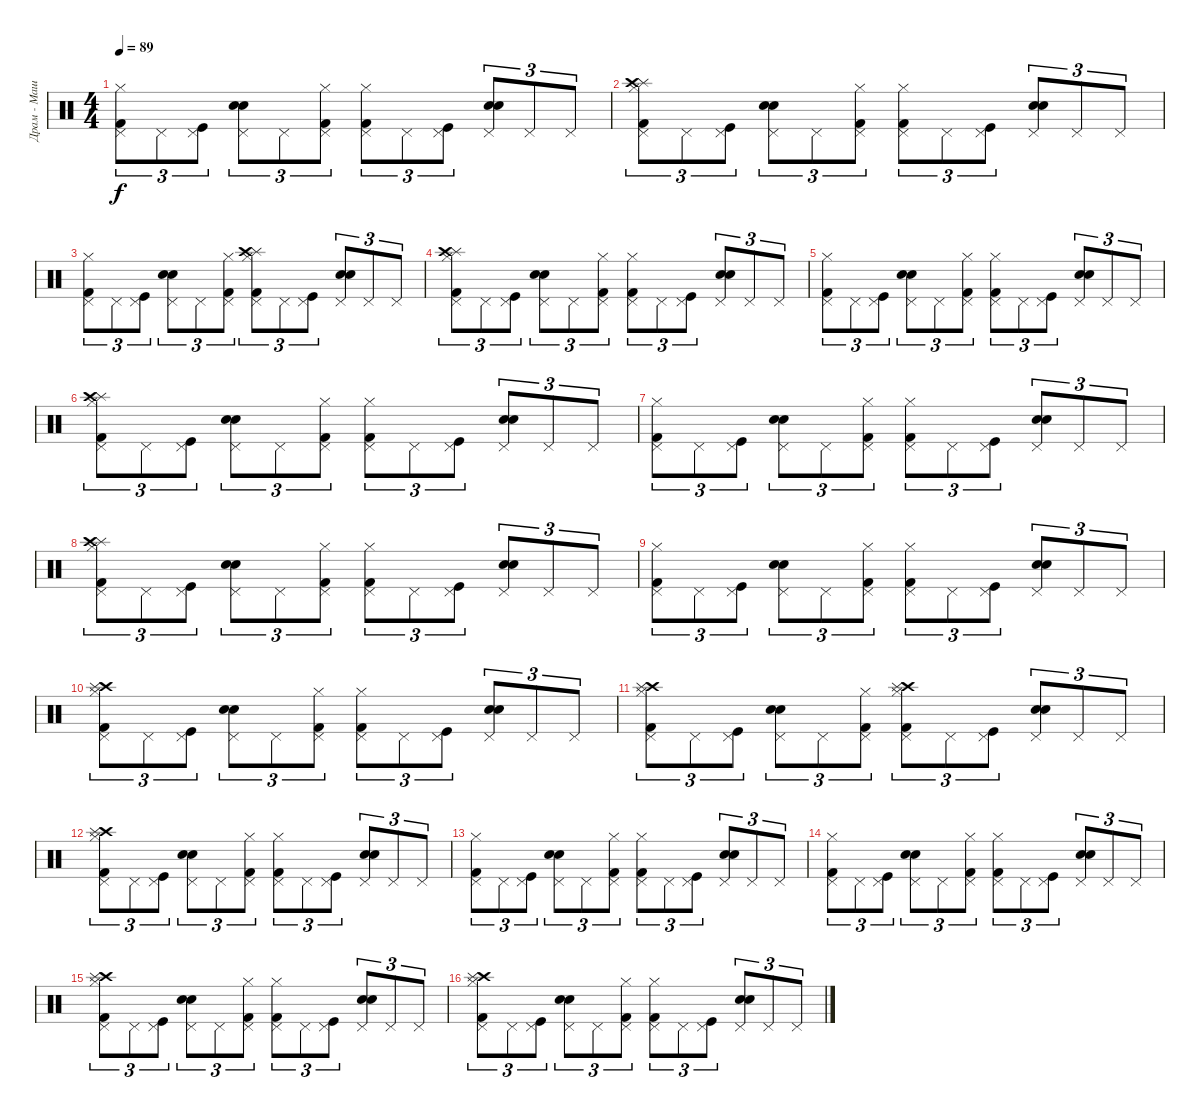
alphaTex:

\track ("Драм - Машина" "Драм - Маш") {instrument percussion}
\staff {score}
\articulation defaults
\ts (4 4)
\tempo 89
\clef neutral
\ks c
("Hi-Hat (closed)" "Kick (hit) 2" "Pedal Hi-Hat (hit)").8{tu (3 2) dy f} "Pedal Hi-Hat (hit)".8{tu (3 2)} ("Kick (hit)" "Pedal Hi-Hat (hit)").8{tu (3 2)} ("Snare (hit) 2" "Electric Snare (hit)" "Pedal Hi-Hat (hit)").8{tu (3 2)} "Pedal Hi-Hat (hit)".8{tu (3 2)} ("Kick (hit) 2" "Hi-Hat (closed)" "Pedal Hi-Hat (hit)").8{tu (3 2)} ("Hi-Hat (closed)" "Pedal Hi-Hat (hit)" "Kick (hit) 2").8{tu (3 2)} "Pedal Hi-Hat (hit)".8{tu (3 2)} ("Kick (hit)" "Pedal Hi-Hat (hit)").8{tu (3 2)} ("Pedal Hi-Hat (hit)" "Electric Snare (hit)" "Snare (hit) 2").8{tu (3 2)} "Pedal Hi-Hat (hit)".8{tu (3 2)} "Pedal Hi-Hat (hit)".8{tu (3 2)} |
("Splash (hit)" "Crash high (hit)" "Kick (hit) 2" "Hi-Hat (closed)" "Pedal Hi-Hat (hit)").8{tu (3 2)} "Pedal Hi-Hat (hit)".8{tu (3 2)} ("Kick (hit)" "Pedal Hi-Hat (hit)").8{tu (3 2)} ("Pedal Hi-Hat (hit)" "Snare (hit) 2" "Electric Snare (hit)").8{tu (3 2)} "Pedal Hi-Hat (hit)".8{tu (3 2)} ("Kick (hit) 2" "Hi-Hat (closed)" "Pedal Hi-Hat (hit)").8{tu (3 2)} ("Kick (hit) 2" "Hi-Hat (closed)" "Pedal Hi-Hat (hit)").8{tu (3 2)} "Pedal Hi-Hat (hit)".8{tu (3 2)} ("Kick (hit)" "Pedal Hi-Hat (hit)").8{tu (3 2)} ("Snare (hit) 2" "Pedal Hi-Hat (hit)" "Electric Snare (hit)").8{tu (3 2)} "Pedal Hi-Hat (hit)".8{tu (3 2)} "Pedal Hi-Hat (hit)".8{tu (3 2)} |
("Kick (hit) 2" "Hi-Hat (closed)" "Pedal Hi-Hat (hit)").8{tu (3 2)} "Pedal Hi-Hat (hit)".8{tu (3 2)} ("Kick (hit)" "Pedal Hi-Hat (hit)").8{tu (3 2)} ("Snare (hit) 2" "Pedal Hi-Hat (hit)" "Electric Snare (hit)").8{tu (3 2)} "Pedal Hi-Hat (hit)".8{tu (3 2)} ("Hi-Hat (closed)" "Pedal Hi-Hat (hit)" "Kick (hit) 2").8{tu (3 2)} ("Splash (hit)" "Hi-Hat (closed)" "Pedal Hi-Hat (hit)" "Kick (hit) 2" "Crash high (hit)").8{tu (3 2)} "Pedal Hi-Hat (hit)".8{tu (3 2)} ("Pedal Hi-Hat (hit)" "Kick (hit)").8{tu (3 2)} ("Snare (hit) 2" "Pedal Hi-Hat (hit)" "Electric Snare (hit)").8{tu (3 2)} "Pedal Hi-Hat (hit)".8{tu (3 2)} "Pedal Hi-Hat (hit)".8{tu (3 2)} |
("Splash (hit)" "Kick (hit) 2" "Hi-Hat (closed)" "Crash high (hit)" "Pedal Hi-Hat (hit)").8{tu (3 2)} "Pedal Hi-Hat (hit)".8{tu (3 2)} ("Kick (hit)" "Pedal Hi-Hat (hit)").8{tu (3 2)} ("Electric Snare (hit)" "Snare (hit) 2" "Pedal Hi-Hat (hit)").8{tu (3 2)} "Pedal Hi-Hat (hit)".8{tu (3 2)} ("Hi-Hat (closed)" "Kick (hit) 2" "Pedal Hi-Hat (hit)").8{tu (3 2)} ("Hi-Hat (closed)" "Kick (hit) 2" "Pedal Hi-Hat (hit)").8{tu (3 2)} "Pedal Hi-Hat (hit)".8{tu (3 2)} ("Pedal Hi-Hat (hit)" "Kick (hit)").8{tu (3 2)} ("Pedal Hi-Hat (hit)" "Snare (hit) 2" "Electric Snare (hit)").8{tu (3 2)} "Pedal Hi-Hat (hit)".8{tu (3 2)} "Pedal Hi-Hat (hit)".8{tu (3 2)} |
("Pedal Hi-Hat (hit)" "Kick (hit) 2" "Hi-Hat (closed)").8{tu (3 2)} "Pedal Hi-Hat (hit)".8{tu (3 2)} ("Kick (hit)" "Pedal Hi-Hat (hit)").8{tu (3 2)} ("Electric Snare (hit)" "Snare (hit) 2" "Pedal Hi-Hat (hit)").8{tu (3 2)} "Pedal Hi-Hat (hit)".8{tu (3 2)} ("Hi-Hat (closed)" "Kick (hit) 2" "Pedal Hi-Hat (hit)").8{tu (3 2)} ("Pedal Hi-Hat (hit)" "Kick (hit) 2" "Hi-Hat (closed)").8{tu (3 2)} "Pedal Hi-Hat (hit)".8{tu (3 2)} ("Kick (hit)" "Pedal Hi-Hat (hit)").8{tu (3 2)} ("Electric Snare (hit)" "Pedal Hi-Hat (hit)" "Snare (hit) 2").8{tu (3 2)} "Pedal Hi-Hat (hit)".8{tu (3 2)} "Pedal Hi-Hat (hit)".8{tu (3 2)} |
("Kick (hit) 2" "Splash (hit)" "Crash high (hit)" "Hi-Hat (closed)" "Pedal Hi-Hat (hit)").8{tu (3 2)} "Pedal Hi-Hat (hit)".8{tu (3 2)} ("Kick (hit)" "Pedal Hi-Hat (hit)").8{tu (3 2)} ("Snare (hit) 2" "Pedal Hi-Hat (hit)" "Electric Snare (hit)").8{tu (3 2)} "Pedal Hi-Hat (hit)".8{tu (3 2)} ("Kick (hit) 2" "Hi-Hat (closed)" "Pedal Hi-Hat (hit)").8{tu (3 2)} ("Kick (hit) 2" "Pedal Hi-Hat (hit)" "Hi-Hat (closed)").8{tu (3 2)} "Pedal Hi-Hat (hit)".8{tu (3 2)} ("Kick (hit)" "Pedal Hi-Hat (hit)").8{tu (3 2)} ("Snare (hit) 2" "Electric Snare (hit)" "Pedal Hi-Hat (hit)").8{tu (3 2)} "Pedal Hi-Hat (hit)".8{tu (3 2)} "Pedal Hi-Hat (hit)".8{tu (3 2)} |
("Pedal Hi-Hat (hit)" "Kick (hit) 2" "Hi-Hat (closed)").8{tu (3 2)} "Pedal Hi-Hat (hit)".8{tu (3 2)} ("Pedal Hi-Hat (hit)" "Kick (hit)").8{tu (3 2)} ("Electric Snare (hit)" "Snare (hit) 2" "Pedal Hi-Hat (hit)").8{tu (3 2)} "Pedal Hi-Hat (hit)".8{tu (3 2)} ("Kick (hit) 2" "Pedal Hi-Hat (hit)" "Hi-Hat (closed)").8{tu (3 2)} ("Hi-Hat (closed)" "Pedal Hi-Hat (hit)" "Kick (hit) 2").8{tu (3 2)} "Pedal Hi-Hat (hit)".8{tu (3 2)} ("Kick (hit)" "Pedal Hi-Hat (hit)").8{tu (3 2)} ("Pedal Hi-Hat (hit)" "Electric Snare (hit)" "Snare (hit) 2").8{tu (3 2)} "Pedal Hi-Hat (hit)".8{tu (3 2)} "Pedal Hi-Hat (hit)".8{tu (3 2)} |
("Splash (hit)" "Kick (hit) 2" "Hi-Hat (closed)" "Pedal Hi-Hat (hit)" "Crash high (hit)").8{tu (3 2)} "Pedal Hi-Hat (hit)".8{tu (3 2)} ("Kick (hit)" "Pedal Hi-Hat (hit)").8{tu (3 2)} ("Snare (hit) 2" "Pedal Hi-Hat (hit)" "Electric Snare (hit)").8{tu (3 2)} "Pedal Hi-Hat (hit)".8{tu (3 2)} ("Hi-Hat (closed)" "Pedal Hi-Hat (hit)" "Kick (hit) 2").8{tu (3 2)} ("Hi-Hat (closed)" "Pedal Hi-Hat (hit)" "Kick (hit) 2").8{tu (3 2)} "Pedal Hi-Hat (hit)".8{tu (3 2)} ("Pedal Hi-Hat (hit)" "Kick (hit)").8{tu (3 2)} ("Snare (hit) 2" "Electric Snare (hit)" "Pedal Hi-Hat (hit)").8{tu (3 2)} "Pedal Hi-Hat (hit)".8{tu (3 2)} "Pedal Hi-Hat (hit)".8{tu (3 2)} |
("Kick (hit) 2" "Hi-Hat (closed)" "Pedal Hi-Hat (hit)").8{tu (3 2)} "Pedal Hi-Hat (hit)".8{tu (3 2)} ("Pedal Hi-Hat (hit)" "Kick (hit)").8{tu (3 2)} ("Electric Snare (hit)" "Snare (hit) 2" "Pedal Hi-Hat (hit)").8{tu (3 2)} "Pedal Hi-Hat (hit)".8{tu (3 2)} ("Hi-Hat (closed)" "Kick (hit) 2" "Pedal Hi-Hat (hit)").8{tu (3 2)} ("Hi-Hat (closed)" "Kick (hit) 2" "Pedal Hi-Hat (hit)").8{tu (3 2)} "Pedal Hi-Hat (hit)".8{tu (3 2)} ("Kick (hit)" "Pedal Hi-Hat (hit)").8{tu (3 2)} ("Electric Snare (hit)" "Snare (hit) 2" "Pedal Hi-Hat (hit)").8{tu (3 2)} "Pedal Hi-Hat (hit)".8{tu (3 2)} "Pedal Hi-Hat (hit)".8{tu (3 2)} |
("Crash high (hit)" "Kick (hit) 2" "Hi-Hat (closed)" "Pedal Hi-Hat (hit)" "Splash (hit)").8{tu (3 2)} "Pedal Hi-Hat (hit)".8{tu (3 2)} ("Pedal Hi-Hat (hit)" "Kick (hit)").8{tu (3 2)} ("Snare (hit) 2" "Pedal Hi-Hat (hit)" "Electric Snare (hit)").8{tu (3 2)} "Pedal Hi-Hat (hit)".8{tu (3 2)} ("Hi-Hat (closed)" "Kick (hit) 2" "Pedal Hi-Hat (hit)").8{tu (3 2)} ("Kick (hit) 2" "Pedal Hi-Hat (hit)" "Hi-Hat (closed)").8{tu (3 2)} "Pedal Hi-Hat (hit)".8{tu (3 2)} ("Kick (hit)" "Pedal Hi-Hat (hit)").8{tu (3 2)} ("Snare (hit) 2" "Electric Snare (hit)" "Pedal Hi-Hat (hit)").8{tu (3 2)} "Pedal Hi-Hat (hit)".8{tu (3 2)} "Pedal Hi-Hat (hit)".8{tu (3 2)} |
("Kick (hit) 2" "Hi-Hat (closed)" "Pedal Hi-Hat (hit)" "Crash high (hit)" "Splash (hit)").8{tu (3 2)} "Pedal Hi-Hat (hit)".8{tu (3 2)} ("Kick (hit)" "Pedal Hi-Hat (hit)").8{tu (3 2)} ("Snare (hit) 2" "Pedal Hi-Hat (hit)" "Electric Snare (hit)").8{tu (3 2)} "Pedal Hi-Hat (hit)".8{tu (3 2)} ("Hi-Hat (closed)" "Pedal Hi-Hat (hit)" "Kick (hit) 2").8{tu (3 2)} ("Crash high (hit)" "Hi-Hat (closed)" "Splash (hit)" "Kick (hit) 2" "Pedal Hi-Hat (hit)").8{tu (3 2)} "Pedal Hi-Hat (hit)".8{tu (3 2)} ("Pedal Hi-Hat (hit)" "Kick (hit)").8{tu (3 2)} ("Pedal Hi-Hat (hit)" "Snare (hit) 2" "Electric Snare (hit)").8{tu (3 2)} "Pedal Hi-Hat (hit)".8{tu (3 2)} "Pedal Hi-Hat (hit)".8{tu (3 2)} |
("Pedal Hi-Hat (hit)" "Crash high (hit)" "Splash (hit)" "Kick (hit) 2" "Hi-Hat (closed)").8{tu (3 2)} "Pedal Hi-Hat (hit)".8{tu (3 2)} ("Kick (hit)" "Pedal Hi-Hat (hit)").8{tu (3 2)} ("Electric Snare (hit)" "Snare (hit) 2" "Pedal Hi-Hat (hit)").8{tu (3 2)} "Pedal Hi-Hat (hit)".8{tu (3 2)} ("Hi-Hat (closed)" "Kick (hit) 2" "Pedal Hi-Hat (hit)").8{tu (3 2)} ("Hi-Hat (closed)" "Kick (hit) 2" "Pedal Hi-Hat (hit)").8{tu (3 2)} "Pedal Hi-Hat (hit)".8{tu (3 2)} ("Pedal Hi-Hat (hit)" "Kick (hit)").8{tu (3 2)} ("Electric Snare (hit)" "Snare (hit) 2" "Pedal Hi-Hat (hit)").8{tu (3 2)} "Pedal Hi-Hat (hit)".8{tu (3 2)} "Pedal Hi-Hat (hit)".8{tu (3 2)} |
("Hi-Hat (closed)" "Kick (hit) 2" "Pedal Hi-Hat (hit)").8{tu (3 2)} "Pedal Hi-Hat (hit)".8{tu (3 2)} ("Kick (hit)" "Pedal Hi-Hat (hit)").8{tu (3 2)} ("Electric Snare (hit)" "Snare (hit) 2" "Pedal Hi-Hat (hit)").8{tu (3 2)} "Pedal Hi-Hat (hit)".8{tu (3 2)} ("Hi-Hat (closed)" "Kick (hit) 2" "Pedal Hi-Hat (hit)").8{tu (3 2)} ("Pedal Hi-Hat (hit)" "Kick (hit) 2" "Hi-Hat (closed)").8{tu (3 2)} "Pedal Hi-Hat (hit)".8{tu (3 2)} ("Kick (hit)" "Pedal Hi-Hat (hit)").8{tu (3 2)} ("Snare (hit) 2" "Pedal Hi-Hat (hit)" "Electric Snare (hit)").8{tu (3 2)} "Pedal Hi-Hat (hit)".8{tu (3 2)} "Pedal Hi-Hat (hit)".8{tu (3 2)} |
("Hi-Hat (closed)" "Kick (hit) 2" "Pedal Hi-Hat (hit)").8{tu (3 2)} "Pedal Hi-Hat (hit)".8{tu (3 2)} ("Pedal Hi-Hat (hit)" "Kick (hit)").8{tu (3 2)} ("Pedal Hi-Hat (hit)" "Snare (hit) 2" "Electric Snare (hit)").8{tu (3 2)} "Pedal Hi-Hat (hit)".8{tu (3 2)} ("Hi-Hat (closed)" "Kick (hit) 2" "Pedal Hi-Hat (hit)").8{tu (3 2)} ("Kick (hit) 2" "Hi-Hat (closed)" "Pedal Hi-Hat (hit)").8{tu (3 2)} "Pedal Hi-Hat (hit)".8{tu (3 2)} ("Kick (hit)" "Pedal Hi-Hat (hit)").8{tu (3 2)} ("Electric Snare (hit)" "Pedal Hi-Hat (hit)" "Snare (hit) 2").8{tu (3 2)} "Pedal Hi-Hat (hit)".8{tu (3 2)} "Pedal Hi-Hat (hit)".8{tu (3 2)} |
("Crash high (hit)" "Kick (hit) 2" "Pedal Hi-Hat (hit)" "Hi-Hat (closed)" "Splash (hit)").8{tu (3 2)} "Pedal Hi-Hat (hit)".8{tu (3 2)} ("Pedal Hi-Hat (hit)" "Kick (hit)").8{tu (3 2)} ("Electric Snare (hit)" "Snare (hit) 2" "Pedal Hi-Hat (hit)").8{tu (3 2)} "Pedal Hi-Hat (hit)".8{tu (3 2)} ("Kick (hit) 2" "Pedal Hi-Hat (hit)" "Hi-Hat (closed)").8{tu (3 2)} ("Hi-Hat (closed)" "Pedal Hi-Hat (hit)" "Kick (hit) 2").8{tu (3 2)} "Pedal Hi-Hat (hit)".8{tu (3 2)} ("Kick (hit)" "Pedal Hi-Hat (hit)").8{tu (3 2)} ("Electric Snare (hit)" "Pedal Hi-Hat (hit)" "Snare (hit) 2").8{tu (3 2)} "Pedal Hi-Hat (hit)".8{tu (3 2)} "Pedal Hi-Hat (hit)".8{tu (3 2)} |
("Kick (hit) 2" "Hi-Hat (closed)" "Pedal Hi-Hat (hit)" "Crash high (hit)" "Splash (hit)").8{tu (3 2)} "Pedal Hi-Hat (hit)".8{tu (3 2)} ("Kick (hit)" "Pedal Hi-Hat (hit)").8{tu (3 2)} ("Snare (hit) 2" "Pedal Hi-Hat (hit)" "Electric Snare (hit)").8{tu (3 2)} "Pedal Hi-Hat (hit)".8{tu (3 2)} ("Hi-Hat (closed)" "Pedal Hi-Hat (hit)" "Kick (hit) 2").8{tu (3 2)} ("Hi-Hat (closed)" "Pedal Hi-Hat (hit)" "Kick (hit) 2").8{tu (3 2)} "Pedal Hi-Hat (hit)".8{tu (3 2)} ("Pedal Hi-Hat (hit)" "Kick (hit)").8{tu (3 2)} ("Pedal Hi-Hat (hit)" "Electric Snare (hit)" "Snare (hit) 2").8{tu (3 2)} "Pedal Hi-Hat (hit)".8{tu (3 2)} "Pedal Hi-Hat (hit)".8{tu (3 2)}
